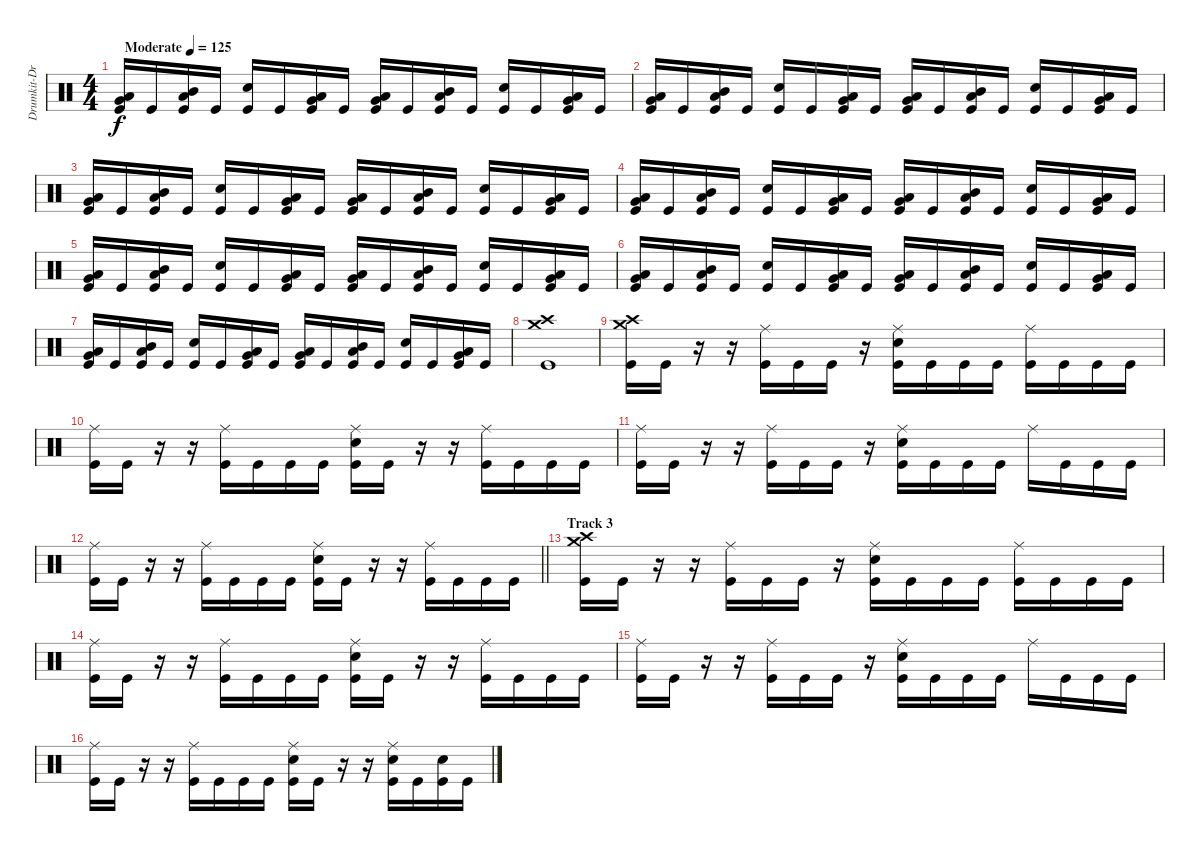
\track ("Drumkit-Drums" "Drumkit-Dr") {instrument percussion}
\staff {score}
\articulation defaults
\ts (4 4)
\tempo (125 "Moderate")
\clef neutral
\ks c
("Kick (hit)" "Very Low Tom (hit)" "Low Floor Tom (hit)").16{dy f} "Kick (hit)".16 ("Kick (hit)" "Low Tom (hit)" "Mid Tom (hit)").16 "Kick (hit)".16 ("Kick (hit)" "Snare (hit) 2").16 "Kick (hit)".16 ("Kick (hit)" "Very Low Tom (hit)" "Low Tom (hit)").16 "Kick (hit)".16 ("Kick (hit)" "Very Low Tom (hit)" "Low Floor Tom (hit)").16 "Kick (hit)".16 ("Kick (hit)" "Low Tom (hit)" "Mid Tom (hit)").16 "Kick (hit)".16 ("Kick (hit)" "Snare (hit) 2").16 "Kick (hit)".16 ("Kick (hit)" "Very Low Tom (hit)" "Low Tom (hit)").16 "Kick (hit)".16 |
("Kick (hit)" "Very Low Tom (hit)" "Low Floor Tom (hit)").16 "Kick (hit)".16 ("Kick (hit)" "Low Tom (hit)" "Mid Tom (hit)").16 "Kick (hit)".16 ("Kick (hit)" "Snare (hit) 2").16 "Kick (hit)".16 ("Kick (hit)" "Very Low Tom (hit)" "Low Tom (hit)").16 "Kick (hit)".16 ("Kick (hit)" "Very Low Tom (hit)" "Low Floor Tom (hit)").16 "Kick (hit)".16 ("Kick (hit)" "Low Tom (hit)" "Mid Tom (hit)").16 "Kick (hit)".16 ("Kick (hit)" "Snare (hit) 2").16 "Kick (hit)".16 ("Kick (hit)" "Very Low Tom (hit)" "Low Tom (hit)").16 "Kick (hit)".16 |
("Kick (hit)" "Very Low Tom (hit)" "Low Floor Tom (hit)").16 "Kick (hit)".16 ("Kick (hit)" "Low Tom (hit)" "Mid Tom (hit)").16 "Kick (hit)".16 ("Kick (hit)" "Snare (hit) 2").16 "Kick (hit)".16 ("Kick (hit)" "Very Low Tom (hit)" "Low Tom (hit)").16 "Kick (hit)".16 ("Kick (hit)" "Very Low Tom (hit)" "Low Floor Tom (hit)").16 "Kick (hit)".16 ("Kick (hit)" "Low Tom (hit)" "Mid Tom (hit)").16 "Kick (hit)".16 ("Kick (hit)" "Snare (hit) 2").16 "Kick (hit)".16 ("Kick (hit)" "Very Low Tom (hit)" "Low Tom (hit)").16 "Kick (hit)".16 |
("Kick (hit)" "Very Low Tom (hit)" "Low Floor Tom (hit)").16 "Kick (hit)".16 ("Kick (hit)" "Low Tom (hit)" "Mid Tom (hit)").16 "Kick (hit)".16 ("Kick (hit)" "Snare (hit) 2").16 "Kick (hit)".16 ("Kick (hit)" "Very Low Tom (hit)" "Low Tom (hit)").16 "Kick (hit)".16 ("Kick (hit)" "Very Low Tom (hit)" "Low Floor Tom (hit)").16 "Kick (hit)".16 ("Kick (hit)" "Low Tom (hit)" "Mid Tom (hit)").16 "Kick (hit)".16 ("Kick (hit)" "Snare (hit) 2").16 "Kick (hit)".16 ("Kick (hit)" "Very Low Tom (hit)" "Low Tom (hit)").16 "Kick (hit)".16 |
("Kick (hit)" "Very Low Tom (hit)" "Low Floor Tom (hit)").16 "Kick (hit)".16 ("Kick (hit)" "Low Tom (hit)" "Mid Tom (hit)").16 "Kick (hit)".16 ("Kick (hit)" "Snare (hit) 2").16 "Kick (hit)".16 ("Kick (hit)" "Very Low Tom (hit)" "Low Tom (hit)").16 "Kick (hit)".16 ("Kick (hit)" "Very Low Tom (hit)" "Low Floor Tom (hit)").16 "Kick (hit)".16 ("Kick (hit)" "Low Tom (hit)" "Mid Tom (hit)").16 "Kick (hit)".16 ("Kick (hit)" "Snare (hit) 2").16 "Kick (hit)".16 ("Kick (hit)" "Very Low Tom (hit)" "Low Tom (hit)").16 "Kick (hit)".16 |
("Kick (hit)" "Very Low Tom (hit)" "Low Floor Tom (hit)").16 "Kick (hit)".16 ("Kick (hit)" "Low Tom (hit)" "Mid Tom (hit)").16 "Kick (hit)".16 ("Kick (hit)" "Snare (hit) 2").16 "Kick (hit)".16 ("Kick (hit)" "Very Low Tom (hit)" "Low Tom (hit)").16 "Kick (hit)".16 ("Kick (hit)" "Very Low Tom (hit)" "Low Floor Tom (hit)").16 "Kick (hit)".16 ("Kick (hit)" "Low Tom (hit)" "Mid Tom (hit)").16 "Kick (hit)".16 ("Kick (hit)" "Snare (hit) 2").16 "Kick (hit)".16 ("Kick (hit)" "Very Low Tom (hit)" "Low Tom (hit)").16 "Kick (hit)".16 |
("Kick (hit)" "Very Low Tom (hit)" "Low Floor Tom (hit)").16 "Kick (hit)".16 ("Kick (hit)" "Low Tom (hit)" "Mid Tom (hit)").16 "Kick (hit)".16 ("Kick (hit)" "Snare (hit) 2").16 "Kick (hit)".16 ("Kick (hit)" "Very Low Tom (hit)" "Low Tom (hit)").16 "Kick (hit)".16 ("Kick (hit)" "Very Low Tom (hit)" "Low Floor Tom (hit)").16 "Kick (hit)".16 ("Kick (hit)" "Low Tom (hit)" "Mid Tom (hit)").16 "Kick (hit)".16 ("Kick (hit)" "Snare (hit) 2").16 "Kick (hit)".16 ("Kick (hit)" "Very Low Tom (hit)" "Low Tom (hit)").16 "Kick (hit)".16 |
("Kick (hit)" "Crash high (hit)" "Crash medium (hit)").1 |
("Kick (hit)" "Crash high (hit)" "Crash medium (hit)").16 "Kick (hit)".16 r.16 r.16 ("Kick (hit)" "Ride (middle)").16 "Kick (hit)".16 "Kick (hit)".16 r.16 ("Kick (hit)" "Ride (middle)" "Snare (hit) 2").16 "Kick (hit)".16 "Kick (hit)".16 "Kick (hit)".16 ("Kick (hit)" "Ride (middle)").16 "Kick (hit)".16 "Kick (hit)".16 "Kick (hit)".16 |
("Kick (hit)" "Ride (middle)").16 "Kick (hit)".16 r.16 r.16 ("Kick (hit)" "Ride (middle)").16 "Kick (hit)".16 "Kick (hit)".16 "Kick (hit)".16 ("Kick (hit)" "Ride (middle)" "Snare (hit) 2").16 "Kick (hit)".16 r.16 r.16 ("Kick (hit)" "Ride (middle)").16 "Kick (hit)".16 "Kick (hit)".16 "Kick (hit)".16 |
("Kick (hit)" "Ride (middle)").16 "Kick (hit)".16 r.16 r.16 ("Kick (hit)" "Ride (middle)").16 "Kick (hit)".16 "Kick (hit)".16 r.16 ("Kick (hit)" "Ride (middle)" "Snare (hit) 2").16 "Kick (hit)".16 "Kick (hit)".16 "Kick (hit)".16 "Ride (middle)".16 "Kick (hit)".16 "Kick (hit)".16 "Kick (hit)".16 |
\barLineRight lightlight
("Kick (hit)" "Ride (middle)").16 "Kick (hit)".16 r.16 r.16 ("Kick (hit)" "Ride (middle)").16 "Kick (hit)".16 "Kick (hit)".16 "Kick (hit)".16 ("Kick (hit)" "Ride (middle)" "Snare (hit) 2").16 "Kick (hit)".16 r.16 r.16 ("Kick (hit)" "Ride (middle)").16 "Kick (hit)".16 "Kick (hit)".16 "Kick (hit)".16 |
\section ("" "Track 3")
("Kick (hit)" "Crash high (hit)" "Crash medium (hit)").16 "Kick (hit)".16 r.16 r.16 ("Kick (hit)" "Ride (middle)").16 "Kick (hit)".16 "Kick (hit)".16 r.16 ("Kick (hit)" "Ride (middle)" "Snare (hit) 2").16 "Kick (hit)".16 "Kick (hit)".16 "Kick (hit)".16 ("Kick (hit)" "Ride (middle)").16 "Kick (hit)".16 "Kick (hit)".16 "Kick (hit)".16 |
("Kick (hit)" "Ride (middle)").16 "Kick (hit)".16 r.16 r.16 ("Kick (hit)" "Ride (middle)").16 "Kick (hit)".16 "Kick (hit)".16 "Kick (hit)".16 ("Kick (hit)" "Ride (middle)" "Snare (hit) 2").16 "Kick (hit)".16 r.16 r.16 ("Kick (hit)" "Ride (middle)").16 "Kick (hit)".16 "Kick (hit)".16 "Kick (hit)".16 |
("Kick (hit)" "Ride (middle)").16 "Kick (hit)".16 r.16 r.16 ("Kick (hit)" "Ride (middle)").16 "Kick (hit)".16 "Kick (hit)".16 r.16 ("Kick (hit)" "Ride (middle)" "Snare (hit) 2").16 "Kick (hit)".16 "Kick (hit)".16 "Kick (hit)".16 "Ride (middle)".16 "Kick (hit)".16 "Kick (hit)".16 "Kick (hit)".16 |
("Kick (hit)" "Ride (middle)").16 "Kick (hit)".16 r.16 r.16 ("Kick (hit)" "Ride (middle)").16 "Kick (hit)".16 "Kick (hit)".16 "Kick (hit)".16 ("Kick (hit)" "Ride (middle)" "Snare (hit) 2").16 "Kick (hit)".16 r.16 r.16 ("Kick (hit)" "Ride (middle)" "Snare (hit) 2").16 "Kick (hit)".16 ("Kick (hit)" "Snare (hit) 2").16 "Kick (hit)".16
